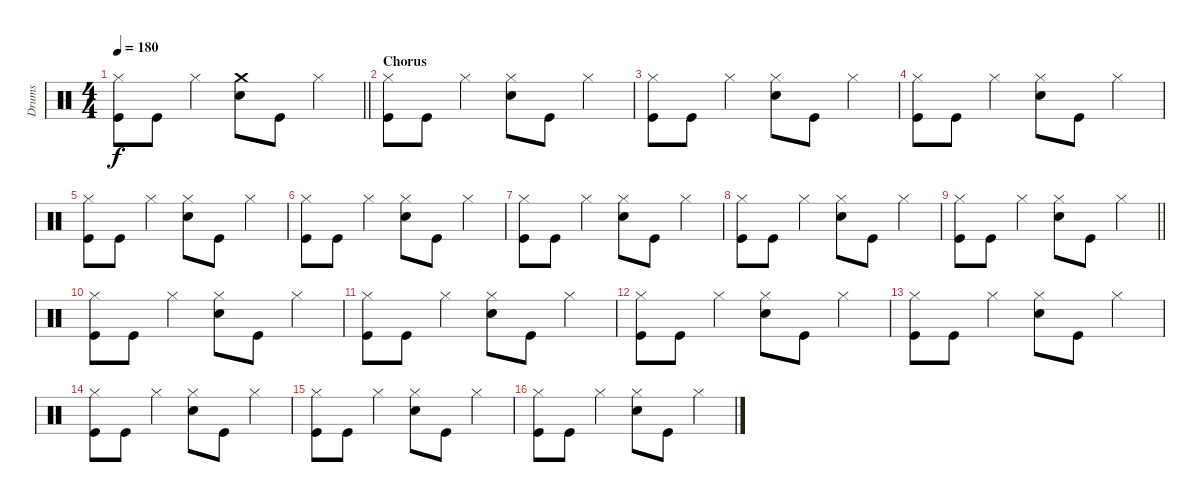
\track ("Drums" "Drums") {instrument percussion}
\staff {score}
\articulation defaults
\ts (4 4)
\tempo 180
\clef neutral
\barLineRight lightlight
\ks c
("Hi-Hat (closed)" "Kick (hit)").8{dy f} "Kick (hit)".8 "Hi-Hat (closed)".4 ("Crash medium (hit)" "Snare (hit) 2").8 "Kick (hit)".8 "Hi-Hat (closed)".4 |
\section ("" "Chorus")
("Hi-Hat (closed)" "Kick (hit)").8 "Kick (hit)".8 "Hi-Hat (closed)".4 ("Hi-Hat (closed)" "Snare (hit) 2").8 "Kick (hit)".8 "Hi-Hat (closed)".4 |
("Hi-Hat (closed)" "Kick (hit)").8 "Kick (hit)".8 "Hi-Hat (closed)".4 ("Hi-Hat (closed)" "Snare (hit) 2").8 "Kick (hit)".8 "Hi-Hat (closed)".4 |
("Hi-Hat (closed)" "Kick (hit)").8 "Kick (hit)".8 "Hi-Hat (closed)".4 ("Hi-Hat (closed)" "Snare (hit) 2").8 "Kick (hit)".8 "Hi-Hat (closed)".4 |
("Hi-Hat (closed)" "Kick (hit)").8 "Kick (hit)".8 "Hi-Hat (closed)".4 ("Hi-Hat (closed)" "Snare (hit) 2").8 "Kick (hit)".8 "Hi-Hat (closed)".4 |
("Hi-Hat (closed)" "Kick (hit)").8 "Kick (hit)".8 "Hi-Hat (closed)".4 ("Hi-Hat (closed)" "Snare (hit) 2").8 "Kick (hit)".8 "Hi-Hat (closed)".4 |
("Hi-Hat (closed)" "Kick (hit)").8 "Kick (hit)".8 "Hi-Hat (closed)".4 ("Hi-Hat (closed)" "Snare (hit) 2").8 "Kick (hit)".8 "Hi-Hat (closed)".4 |
("Hi-Hat (closed)" "Kick (hit)").8 "Kick (hit)".8 "Hi-Hat (closed)".4 ("Hi-Hat (closed)" "Snare (hit) 2").8 "Kick (hit)".8 "Hi-Hat (closed)".4 |
\barLineRight lightlight
("Hi-Hat (closed)" "Kick (hit)").8 "Kick (hit)".8 "Hi-Hat (closed)".4 ("Hi-Hat (closed)" "Snare (hit) 2").8 "Kick (hit)".8 "Hi-Hat (closed)".4 |
("Hi-Hat (closed)" "Kick (hit)").8 "Kick (hit)".8 "Hi-Hat (closed)".4 ("Hi-Hat (closed)" "Snare (hit) 2").8 "Kick (hit)".8 "Hi-Hat (closed)".4 |
("Hi-Hat (closed)" "Kick (hit)").8 "Kick (hit)".8 "Hi-Hat (closed)".4 ("Hi-Hat (closed)" "Snare (hit) 2").8 "Kick (hit)".8 "Hi-Hat (closed)".4 |
("Hi-Hat (closed)" "Kick (hit)").8 "Kick (hit)".8 "Hi-Hat (closed)".4 ("Hi-Hat (closed)" "Snare (hit) 2").8 "Kick (hit)".8 "Hi-Hat (closed)".4 |
("Hi-Hat (closed)" "Kick (hit)").8 "Kick (hit)".8 "Hi-Hat (closed)".4 ("Hi-Hat (closed)" "Snare (hit) 2").8 "Kick (hit)".8 "Hi-Hat (closed)".4 |
("Hi-Hat (closed)" "Kick (hit)").8 "Kick (hit)".8 "Hi-Hat (closed)".4 ("Hi-Hat (closed)" "Snare (hit) 2").8 "Kick (hit)".8 "Hi-Hat (closed)".4 |
("Hi-Hat (closed)" "Kick (hit)").8 "Kick (hit)".8 "Hi-Hat (closed)".4 ("Hi-Hat (closed)" "Snare (hit) 2").8 "Kick (hit)".8 "Hi-Hat (closed)".4 |
("Hi-Hat (closed)" "Kick (hit)").8 "Kick (hit)".8 "Hi-Hat (closed)".4 ("Hi-Hat (closed)" "Snare (hit) 2").8 "Kick (hit)".8 "Hi-Hat (closed)".4
